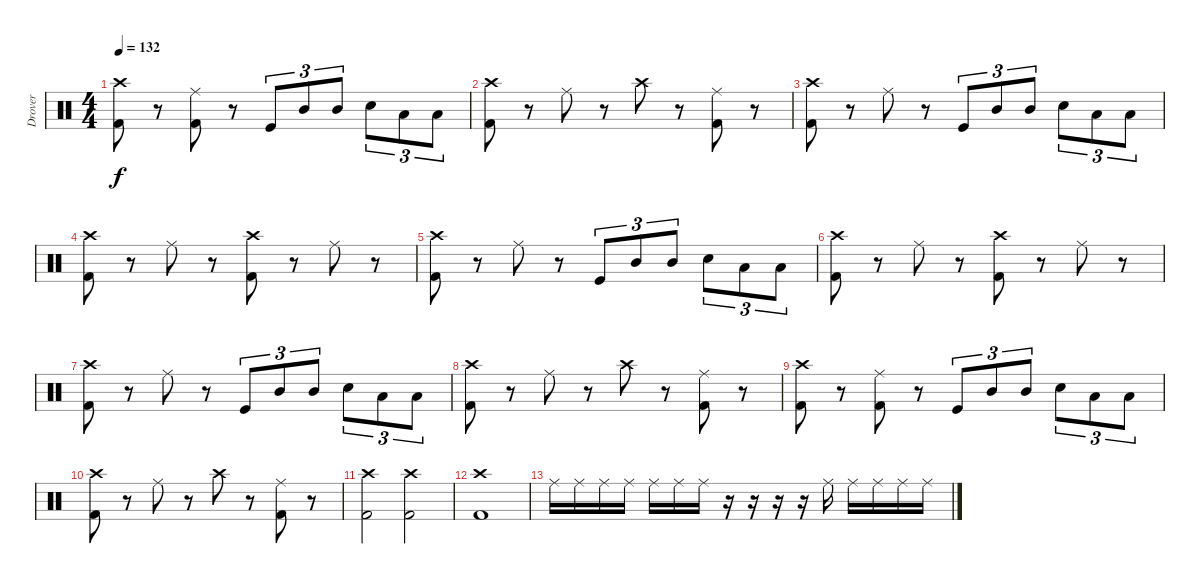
\track ("Drover" "Drover") {instrument percussion}
\staff {score}
\articulation defaults
\ts (4 4)
\tempo 132
\clef neutral
\ks c
("Crash high (hit)" "Kick (hit) 2").8{dy f} r.8 ("Ride (middle)" "Kick (hit) 2").8 r.8 "Kick (hit)".8{tu (3 2)} "Mid Tom (hit)".8{tu (3 2)} "Mid Tom (hit)".8{tu (3 2)} "Snare (hit) 2".8{tu (3 2)} "Low Floor Tom (hit)".8{tu (3 2)} "Low Floor Tom (hit)".8{tu (3 2)} |
("Crash high (hit)" "Kick (hit) 2").8 r.8 "Ride (middle)".8 r.8 "Crash high (hit)".8 r.8 ("Ride (middle)" "Kick (hit) 2").8 r.8 |
("Crash high (hit)" "Kick (hit) 2").8 r.8 "Ride (middle)".8 r.8 "Kick (hit)".8{tu (3 2)} "Mid Tom (hit)".8{tu (3 2)} "Mid Tom (hit)".8{tu (3 2)} "Snare (hit) 2".8{tu (3 2)} "Low Floor Tom (hit)".8{tu (3 2)} "Low Floor Tom (hit)".8{tu (3 2)} |
("Crash high (hit)" "Kick (hit) 2").8 r.8 "Ride (middle)".8 r.8 ("Crash high (hit)" "Kick (hit) 2").8 r.8 "Ride (middle)".8 r.8 |
("Crash high (hit)" "Kick (hit) 2").8 r.8 "Ride (middle)".8 r.8 "Kick (hit)".8{tu (3 2)} "Mid Tom (hit)".8{tu (3 2)} "Mid Tom (hit)".8{tu (3 2)} "Snare (hit) 2".8{tu (3 2)} "Low Floor Tom (hit)".8{tu (3 2)} "Low Floor Tom (hit)".8{tu (3 2)} |
("Crash high (hit)" "Kick (hit) 2").8 r.8 "Ride (middle)".8 r.8 ("Crash high (hit)" "Kick (hit) 2").8 r.8 "Ride (middle)".8 r.8 |
("Crash high (hit)" "Kick (hit) 2").8 r.8 "Ride (middle)".8 r.8 "Kick (hit)".8{tu (3 2)} "Mid Tom (hit)".8{tu (3 2)} "Mid Tom (hit)".8{tu (3 2)} "Snare (hit) 2".8{tu (3 2)} "Low Floor Tom (hit)".8{tu (3 2)} "Low Floor Tom (hit)".8{tu (3 2)} |
("Crash high (hit)" "Kick (hit) 2").8 r.8 "Ride (middle)".8 r.8 "Crash high (hit)".8 r.8 ("Ride (middle)" "Kick (hit) 2").8 r.8 |
("Crash high (hit)" "Kick (hit) 2").8 r.8 ("Ride (middle)" "Kick (hit) 2").8 r.8 "Kick (hit)".8{tu (3 2)} "Mid Tom (hit)".8{tu (3 2)} "Mid Tom (hit)".8{tu (3 2)} "Snare (hit) 2".8{tu (3 2)} "Low Floor Tom (hit)".8{tu (3 2)} "Low Floor Tom (hit)".8{tu (3 2)} |
("Crash high (hit)" "Kick (hit) 2").8 r.8 "Ride (middle)".8 r.8 "Crash high (hit)".8 r.8 ("Ride (middle)" "Kick (hit) 2").8 r.8 |
("Crash high (hit)" "Kick (hit) 2").2 ("Crash high (hit)" "Kick (hit) 2").2 |
("Kick (hit) 2" "Crash high (hit)").1 |
"Ride (middle)".16 "Ride (middle)".16 "Ride (middle)".16 "Ride (middle)".16 "Ride (middle)".16 "Ride (middle)".16 "Ride (middle)".16 r.16 r.16 r.16 r.16 "Ride (middle)".16 "Ride (middle)".16 "Ride (middle)".16 "Ride (middle)".16 "Ride (middle)".16
